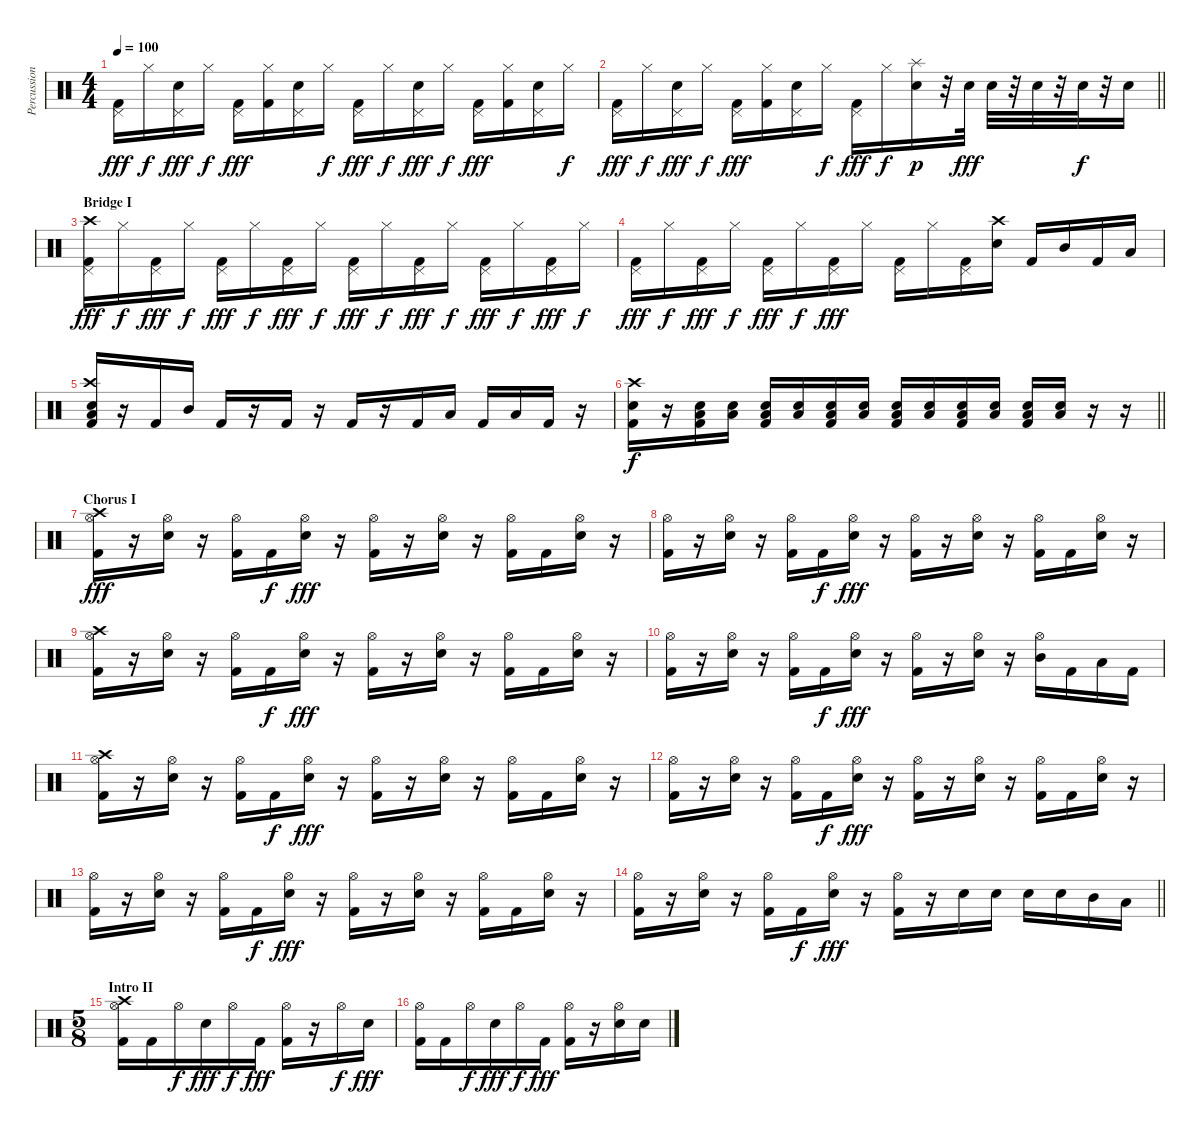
\track ("Percussion" "Percussion") {instrument percussion}
\staff
\articulation defaults
\ts (4 4)
\tempo 100
\clef neutral
\ks c
("Kick (hit) 2" "Pedal Hi-Hat (hit)").16{dy fff} "Hi-Hat (closed)".16{dy f} ("Electric Snare (hit)" "Pedal Hi-Hat (hit)").16{dy fff} "Hi-Hat (closed)".16{dy f} ("Kick (hit) 2" "Pedal Hi-Hat (hit)").16{dy fff} ("Kick (hit) 2" "Hi-Hat (closed)").16 ("Electric Snare (hit)" "Pedal Hi-Hat (hit)").16 "Hi-Hat (closed)".16{dy f} ("Kick (hit) 2" "Pedal Hi-Hat (hit)").16{dy fff} "Hi-Hat (closed)".16{dy f} ("Electric Snare (hit)" "Pedal Hi-Hat (hit)").16{dy fff} "Hi-Hat (closed)".16{dy f} ("Kick (hit) 2" "Pedal Hi-Hat (hit)").16{dy fff} ("Kick (hit) 2" "Hi-Hat (closed)").16 ("Electric Snare (hit)" "Pedal Hi-Hat (hit)").16 "Hi-Hat (closed)".16{dy f} |
\barLineRight lightlight
("Kick (hit) 2" "Pedal Hi-Hat (hit)").16{dy fff} "Hi-Hat (closed)".16{dy f} ("Electric Snare (hit)" "Pedal Hi-Hat (hit)").16{dy fff} "Hi-Hat (closed)".16{dy f} ("Kick (hit) 2" "Pedal Hi-Hat (hit)").16{dy fff} ("Kick (hit) 2" "Hi-Hat (closed)").16 ("Electric Snare (hit)" "Pedal Hi-Hat (hit)").16 "Hi-Hat (closed)".16{dy f} ("Kick (hit) 2" "Pedal Hi-Hat (hit)").16{dy fff} "Hi-Hat (closed)".16{dy f} ("Electric Snare (hit)" "Splash (hit)").16{dy p} r.32 "Electric Snare (hit)".32{dy fff} "Electric Snare (hit)".32 r.32 "Electric Snare (hit)".32 r.32 "Electric Snare (hit)".32{dy f} r.32 "Electric Snare (hit)".16 |
\section ("" "Bridge I")
("Kick (hit) 2" "Pedal Hi-Hat (hit)" "Crash high (hit)").16{dy fff} "Hi-Hat (closed)".16{dy f} ("Kick (hit) 2" "Pedal Hi-Hat (hit)").16{dy fff} "Hi-Hat (closed)".16{dy f} ("Kick (hit) 2" "Pedal Hi-Hat (hit)").16{dy fff} "Hi-Hat (closed)".16{dy f} ("Kick (hit) 2" "Pedal Hi-Hat (hit)").16{dy fff} "Hi-Hat (closed)".16{dy f} ("Kick (hit) 2" "Pedal Hi-Hat (hit)").16{dy fff} "Hi-Hat (closed)".16{dy f} ("Kick (hit) 2" "Pedal Hi-Hat (hit)").16{dy fff} "Hi-Hat (closed)".16{dy f} ("Kick (hit) 2" "Pedal Hi-Hat (hit)").16{dy fff} "Hi-Hat (closed)".16{dy f} ("Kick (hit) 2" "Pedal Hi-Hat (hit)").16{dy fff} "Hi-Hat (closed)".16{dy f} |
("Kick (hit) 2" "Pedal Hi-Hat (hit)").16{dy fff} "Hi-Hat (closed)".16{dy f} ("Kick (hit) 2" "Pedal Hi-Hat (hit)").16{dy fff} "Hi-Hat (closed)".16{dy f} ("Kick (hit) 2" "Pedal Hi-Hat (hit)").16{dy fff} "Hi-Hat (closed)".16{dy f} ("Kick (hit) 2" "Pedal Hi-Hat (hit)").16{dy fff} "Hi-Hat (closed)".16 ("Kick (hit) 2" "Pedal Hi-Hat (hit)").16 "Hi-Hat (closed)".16 ("Kick (hit) 2" "Pedal Hi-Hat (hit)").16 ("Electric Snare (hit)" "Crash high (hit)").16 "Kick (hit) 2".16 "Mid Tom (hit)".16 "Kick (hit) 2".16 "Low Tom (hit)".16 |
("Kick (hit) 2" "Electric Snare (hit)" "Low Tom (hit)" "Crash high (hit)").16 r.16 "Kick (hit) 2".16 "Mid Tom (hit)".16 "Kick (hit) 2".16 r.16 "Kick (hit) 2".16 r.16 "Kick (hit) 2".16 r.16 "Kick (hit) 2".16 "Low Tom (hit)".16 "Kick (hit) 2".16 "Low Tom (hit)".16 "Kick (hit) 2".16 r.16 |
\barLineRight lightlight
("Kick (hit) 2" "Electric Snare (hit)" "Crash high (hit)").16{dy f} r.16 ("Kick (hit) 2" "Electric Snare (hit)" "Low Tom (hit)").16 ("Electric Snare (hit)" "Low Tom (hit)").16 ("Kick (hit) 2" "Electric Snare (hit)" "Low Tom (hit)").16 ("Electric Snare (hit)" "Low Tom (hit)").16 ("Kick (hit) 2" "Electric Snare (hit)" "Low Tom (hit)").16 ("Electric Snare (hit)" "Low Tom (hit)").16 ("Kick (hit) 2" "Electric Snare (hit)" "Low Tom (hit)").16 ("Electric Snare (hit)" "Low Tom (hit)").16 ("Kick (hit) 2" "Electric Snare (hit)" "Low Tom (hit)").16 ("Electric Snare (hit)" "Low Tom (hit)").16 ("Kick (hit) 2" "Electric Snare (hit)" "Low Tom (hit)").16 ("Electric Snare (hit)" "Low Tom (hit)").16 r.16 r.16 |
\section ("" "Chorus I")
("Kick (hit) 2" "Hi-Hat (open)" "Crash high (hit)").16{dy fff} r.16 ("Electric Snare (hit)" "Hi-Hat (open)").16 r.16 ("Kick (hit) 2" "Hi-Hat (open)").16 "Kick (hit) 2".16{dy f} ("Electric Snare (hit)" "Hi-Hat (open)").16{dy fff} r.16 ("Kick (hit) 2" "Hi-Hat (open)").16 r.16 ("Electric Snare (hit)" "Hi-Hat (open)").16 r.16 ("Kick (hit) 2" "Hi-Hat (open)").16 "Kick (hit) 2".16 ("Electric Snare (hit)" "Hi-Hat (open)").16 r.16 |
("Kick (hit) 2" "Hi-Hat (open)").16 r.16 ("Electric Snare (hit)" "Hi-Hat (open)").16 r.16 ("Kick (hit) 2" "Hi-Hat (open)").16 "Kick (hit) 2".16{dy f} ("Electric Snare (hit)" "Hi-Hat (open)").16{dy fff} r.16 ("Kick (hit) 2" "Hi-Hat (open)").16 r.16 ("Electric Snare (hit)" "Hi-Hat (open)").16 r.16 ("Kick (hit) 2" "Hi-Hat (open)").16 "Kick (hit) 2".16 ("Electric Snare (hit)" "Hi-Hat (open)").16 r.16 |
("Kick (hit) 2" "Hi-Hat (open)" "Crash high (hit)").16 r.16 ("Electric Snare (hit)" "Hi-Hat (open)").16 r.16 ("Kick (hit) 2" "Hi-Hat (open)").16 "Kick (hit) 2".16{dy f} ("Electric Snare (hit)" "Hi-Hat (open)").16{dy fff} r.16 ("Kick (hit) 2" "Hi-Hat (open)").16 r.16 ("Electric Snare (hit)" "Hi-Hat (open)").16 r.16 ("Kick (hit) 2" "Hi-Hat (open)").16 "Kick (hit) 2".16 ("Electric Snare (hit)" "Hi-Hat (open)").16 r.16 |
("Kick (hit) 2" "Hi-Hat (open)").16 r.16 ("Electric Snare (hit)" "Hi-Hat (open)").16 r.16 ("Kick (hit) 2" "Hi-Hat (open)").16 "Kick (hit) 2".16{dy f} ("Electric Snare (hit)" "Hi-Hat (open)").16{dy fff} r.16 ("Kick (hit) 2" "Hi-Hat (open)").16 r.16 ("Electric Snare (hit)" "Hi-Hat (open)").16 r.16 ("Mid Tom (hit)" "Hi-Hat (open)").16 "Kick (hit) 2".16 "Low Tom (hit)".16 "Kick (hit) 2".16 |
("Kick (hit) 2" "Hi-Hat (open)" "Crash high (hit)").16 r.16 ("Electric Snare (hit)" "Hi-Hat (open)").16 r.16 ("Kick (hit) 2" "Hi-Hat (open)").16 "Kick (hit) 2".16{dy f} ("Electric Snare (hit)" "Hi-Hat (open)").16{dy fff} r.16 ("Kick (hit) 2" "Hi-Hat (open)").16 r.16 ("Electric Snare (hit)" "Hi-Hat (open)").16 r.16 ("Kick (hit) 2" "Hi-Hat (open)").16 "Kick (hit) 2".16 ("Electric Snare (hit)" "Hi-Hat (open)").16 r.16 |
("Kick (hit) 2" "Hi-Hat (open)").16 r.16 ("Electric Snare (hit)" "Hi-Hat (open)").16 r.16 ("Kick (hit) 2" "Hi-Hat (open)").16 "Kick (hit) 2".16{dy f} ("Electric Snare (hit)" "Hi-Hat (open)").16{dy fff} r.16 ("Kick (hit) 2" "Hi-Hat (open)").16 r.16 ("Electric Snare (hit)" "Hi-Hat (open)").16 r.16 ("Kick (hit) 2" "Hi-Hat (open)").16 "Kick (hit) 2".16 ("Electric Snare (hit)" "Hi-Hat (open)").16 r.16 |
("Kick (hit) 2" "Hi-Hat (open)").16 r.16 ("Electric Snare (hit)" "Hi-Hat (open)").16 r.16 ("Kick (hit) 2" "Hi-Hat (open)").16 "Kick (hit) 2".16{dy f} ("Electric Snare (hit)" "Hi-Hat (open)").16{dy fff} r.16 ("Kick (hit) 2" "Hi-Hat (open)").16 r.16 ("Electric Snare (hit)" "Hi-Hat (open)").16 r.16 ("Kick (hit) 2" "Hi-Hat (open)").16 "Kick (hit) 2".16 ("Electric Snare (hit)" "Hi-Hat (open)").16 r.16 |
\barLineRight lightlight
("Kick (hit) 2" "Hi-Hat (open)").16 r.16 ("Electric Snare (hit)" "Hi-Hat (open)").16 r.16 ("Kick (hit) 2" "Hi-Hat (open)").16 "Kick (hit) 2".16{dy f} ("Electric Snare (hit)" "Hi-Hat (open)").16{dy fff} r.16 ("Kick (hit) 2" "Hi-Hat (open)").16 r.16 "Electric Snare (hit)".16 "Electric Snare (hit)".16 "Electric Snare (hit)".16 "Electric Snare (hit)".16 "Mid Tom (hit)".16 "Low Tom (hit)".16 |
\ts (5 8)
\section ("" "Intro II")
("Kick (hit) 2" "Hi-Hat (open)" "Crash high (hit)").16 "Kick (hit) 2".16 "Hi-Hat (open)".16{dy f} "Electric Snare (hit)".16{dy fff} "Hi-Hat (open)".16{dy f} "Kick (hit) 2".16{dy fff} ("Kick (hit) 2" "Hi-Hat (open)").16 r.16 "Hi-Hat (open)".16{dy f} "Electric Snare (hit)".16{dy fff} |
("Kick (hit) 2" "Hi-Hat (open)").16 "Kick (hit) 2".16 "Hi-Hat (open)".16{dy f} "Electric Snare (hit)".16{dy fff} "Hi-Hat (open)".16{dy f} "Kick (hit) 2".16{dy fff} ("Kick (hit) 2" "Hi-Hat (open)").16 r.16 ("Electric Snare (hit)" "Hi-Hat (open)").16 "Electric Snare (hit)".16
